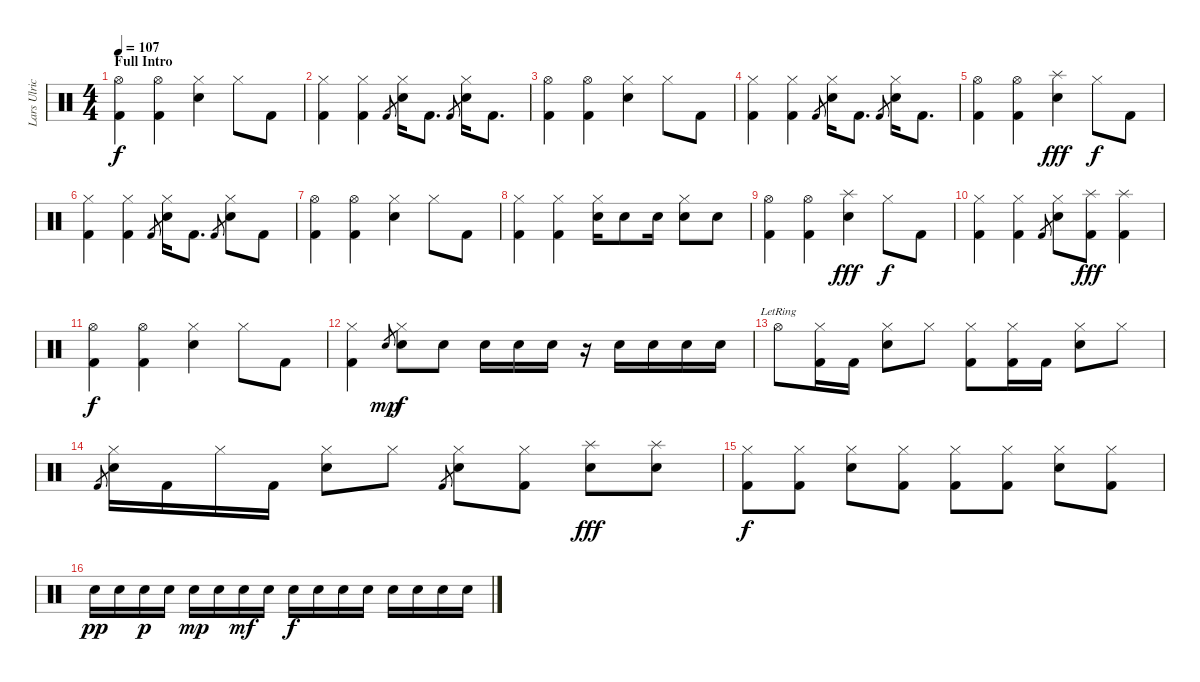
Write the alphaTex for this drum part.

\track ("Lars Ulrich" "Lars Ulric") {instrument percussion}
\staff {score}
\articulation defaults
\ts (4 4)
\section ("" "Full Intro")
\tempo 106
\tempo 107
\clef neutral
\ks c
("Hi-Hat (open)" "Kick (hit) 2").4{dy f} ("Hi-Hat (open)" "Kick (hit) 2").4 ("Hi-Hat (closed)" "Electric Snare (hit)").4 "Hi-Hat (closed)".8 "Kick (hit) 2".8 |
("Hi-Hat (closed)" "Kick (hit) 2").4 ("Hi-Hat (closed)" "Kick (hit) 2").4 "Kick (hit) 2".8{gr} ("Hi-Hat (closed)" "Electric Snare (hit)").16 "Kick (hit) 2".8{d} "Kick (hit) 2".8{gr} ("Hi-Hat (closed)" "Electric Snare (hit)").16 "Kick (hit) 2".8{d} |
("Hi-Hat (open)" "Kick (hit) 2").4 ("Hi-Hat (open)" "Kick (hit) 2").4 ("Hi-Hat (closed)" "Electric Snare (hit)").4 "Hi-Hat (closed)".8 "Kick (hit) 2".8 |
("Hi-Hat (closed)" "Kick (hit) 2").4 ("Hi-Hat (closed)" "Kick (hit) 2").4 "Kick (hit) 2".8{gr} ("Hi-Hat (closed)" "Electric Snare (hit)").16 "Kick (hit) 2".8{d} "Kick (hit) 2".8{gr} ("Hi-Hat (closed)" "Electric Snare (hit)").16 "Kick (hit) 2".8{d} |
("Hi-Hat (open)" "Kick (hit) 2").4 ("Hi-Hat (open)" "Kick (hit) 2").4 ("Splash (hit)" "Electric Snare (hit)").4{dy fff} "Hi-Hat (closed)".8{dy f} "Kick (hit) 2".8 |
("Hi-Hat (closed)" "Kick (hit) 2").4 ("Hi-Hat (closed)" "Kick (hit) 2").4 "Kick (hit) 2".8{gr} ("Hi-Hat (closed)" "Electric Snare (hit)").16 "Kick (hit) 2".8{d} "Kick (hit) 2".8{gr} ("Hi-Hat (closed)" "Electric Snare (hit)").8 "Kick (hit) 2".8 |
("Hi-Hat (open)" "Kick (hit) 2").4 ("Hi-Hat (open)" "Kick (hit) 2").4 ("Hi-Hat (closed)" "Electric Snare (hit)").4 "Hi-Hat (closed)".8 "Kick (hit) 2".8 |
("Hi-Hat (closed)" "Kick (hit) 2").4 ("Hi-Hat (closed)" "Kick (hit) 2").4 ("Hi-Hat (closed)" "Electric Snare (hit)").16 "Electric Snare (hit)".8 "Electric Snare (hit)".16 ("Hi-Hat (closed)" "Electric Snare (hit)").8 "Electric Snare (hit)".8 |
("Hi-Hat (open)" "Kick (hit) 2").4 ("Hi-Hat (open)" "Kick (hit) 2").4 ("Splash (hit)" "Electric Snare (hit)").4{dy fff} "Hi-Hat (closed)".8{dy f} "Kick (hit) 2".8 |
("Hi-Hat (closed)" "Kick (hit) 2").4 ("Hi-Hat (closed)" "Kick (hit) 2").4 "Kick (hit) 2".8{gr} ("Hi-Hat (closed)" "Electric Snare (hit)").8 ("Splash (hit)" "Kick (hit) 2").8{dy fff} ("Splash (hit)" "Kick (hit) 2").4 |
("Hi-Hat (open)" "Kick (hit) 2").4{dy f} ("Hi-Hat (open)" "Kick (hit) 2").4 ("Hi-Hat (closed)" "Electric Snare (hit)").4 "Hi-Hat (closed)".8 "Kick (hit) 2".8 |
("Hi-Hat (closed)" "Kick (hit) 2").4 "Electric Snare (hit)".8{gr dy mp} ("Hi-Hat (closed)" "Electric Snare (hit)").8{dy f} "Electric Snare (hit)".8 "Electric Snare (hit)".16 "Electric Snare (hit)".16 "Electric Snare (hit)".16 r.16 "Electric Snare (hit)".16 "Electric Snare (hit)".16 "Electric Snare (hit)".16 "Electric Snare (hit)".16 |
"Hi-Hat (open)"{lr}.8 ("Hi-Hat (closed)" "Kick (hit) 2").16 "Kick (hit) 2".16 ("Hi-Hat (closed)" "Electric Snare (hit)").8 "Hi-Hat (closed)".8 ("Hi-Hat (closed)" "Kick (hit) 2").8 ("Hi-Hat (closed)" "Kick (hit) 2").16 "Kick (hit) 2".16 ("Hi-Hat (closed)" "Electric Snare (hit)").8 "Hi-Hat (closed)".8 |
"Kick (hit) 2".8{gr} ("Hi-Hat (closed)" "Electric Snare (hit)").16 "Kick (hit) 2".16 "Hi-Hat (closed)".16 "Kick (hit) 2".16 ("Hi-Hat (closed)" "Electric Snare (hit)").8 "Hi-Hat (closed)".8 "Kick (hit) 2".8{gr} ("Hi-Hat (closed)" "Electric Snare (hit)").8 ("Hi-Hat (closed)" "Kick (hit) 2").8 ("Splash (hit)" "Electric Snare (hit)").8{dy fff} ("Splash (hit)" "Electric Snare (hit)").8 |
("Hi-Hat (closed)" "Kick (hit) 2").8{dy f} ("Hi-Hat (closed)" "Kick (hit) 2").8 ("Hi-Hat (closed)" "Electric Snare (hit)").8 ("Hi-Hat (closed)" "Kick (hit) 2").8 ("Hi-Hat (closed)" "Kick (hit) 2").8 ("Hi-Hat (closed)" "Kick (hit) 2").8 ("Hi-Hat (closed)" "Electric Snare (hit)").8 ("Hi-Hat (closed)" "Kick (hit) 2").8 |
"Electric Snare (hit)".16{dy pp} "Electric Snare (hit)".16 "Electric Snare (hit)".16{dy p} "Electric Snare (hit)".16 "Electric Snare (hit)".16{dy mp} "Electric Snare (hit)".16 "Electric Snare (hit)".16{dy mf} "Electric Snare (hit)".16 "Electric Snare (hit)".16{dy f} "Electric Snare (hit)".16 "Electric Snare (hit)".16 "Electric Snare (hit)".16 "Electric Snare (hit)".16 "Electric Snare (hit)".16 "Electric Snare (hit)".16 "Electric Snare (hit)".16
